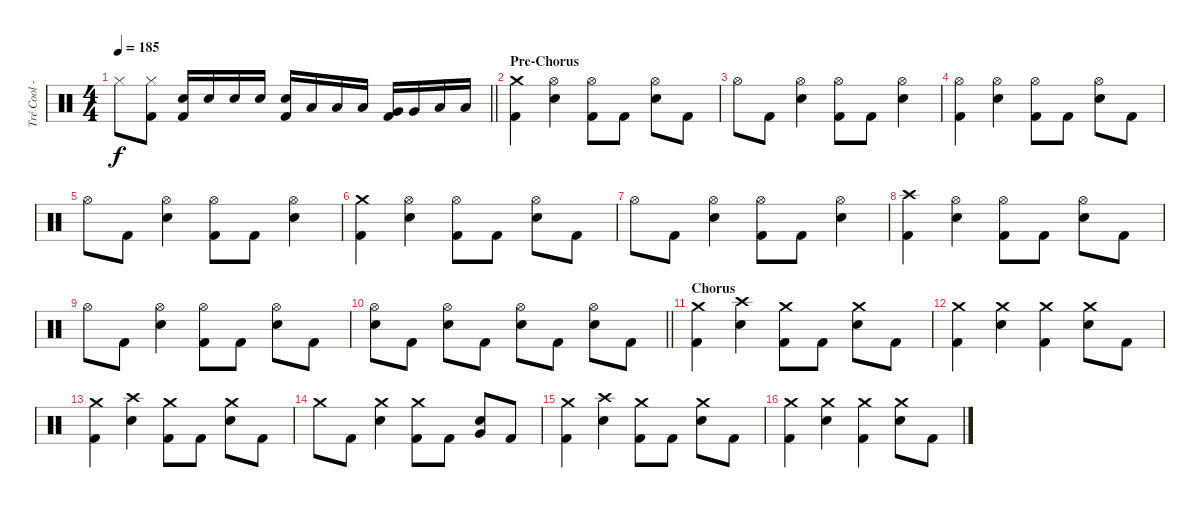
\track ("Tré Cool - Drums" "Tré Cool -") {instrument percussion}
\staff {score}
\articulation defaults
\ts (4 4)
\tempo 185
\clef neutral
\barLineRight lightlight
\ks c "Hi-Hat (closed)".8{dy f}
("Hi-Hat (closed)" "Kick (hit) 2").8 ("Electric Snare (hit)" "Kick (hit) 2").16 "Electric Snare (hit)".16 "Electric Snare (hit)".16 "Electric Snare (hit)".16 ("Electric Snare (hit)" "Kick (hit) 2").16 "Low Tom (hit)".16 "Low Tom (hit)".16 "Low Tom (hit)".16 ("Very Low Tom (hit)" "Kick (hit) 2").16 "Very Low Tom (hit)".16 "Low Floor Tom (hit)".16 "Low Floor Tom (hit)".16 |
\section ("" "Pre-Chorus")
("Crash medium (hit)" "Kick (hit) 2").4 ("Hi-Hat (open)" "Electric Snare (hit)").4 ("Hi-Hat (open)" "Kick (hit) 2").8 "Kick (hit) 2".8 ("Hi-Hat (open)" "Electric Snare (hit)").8 "Kick (hit) 2".8 |
"Hi-Hat (open)".8 "Kick (hit) 2".8 ("Hi-Hat (open)" "Electric Snare (hit)").4 ("Hi-Hat (open)" "Kick (hit) 2").8 "Kick (hit) 2".8 ("Hi-Hat (open)" "Electric Snare (hit)").4 |
("Hi-Hat (open)" "Kick (hit) 2").4 ("Hi-Hat (open)" "Electric Snare (hit)").4 ("Hi-Hat (open)" "Kick (hit) 2").8 "Kick (hit) 2".8 ("Hi-Hat (open)" "Electric Snare (hit)").8 "Kick (hit) 2".8 |
"Hi-Hat (open)".8 "Kick (hit) 2".8 ("Hi-Hat (open)" "Electric Snare (hit)").4 ("Hi-Hat (open)" "Kick (hit) 2").8 "Kick (hit) 2".8 ("Hi-Hat (open)" "Electric Snare (hit)").4 |
("Crash medium (hit)" "Kick (hit) 2").4 ("Hi-Hat (open)" "Electric Snare (hit)").4 ("Hi-Hat (open)" "Kick (hit) 2").8 "Kick (hit) 2".8 ("Hi-Hat (open)" "Electric Snare (hit)").8 "Kick (hit) 2".8 |
"Hi-Hat (open)".8 "Kick (hit) 2".8 ("Hi-Hat (open)" "Electric Snare (hit)").4 ("Hi-Hat (open)" "Kick (hit) 2").8 "Kick (hit) 2".8 ("Hi-Hat (open)" "Electric Snare (hit)").4 |
("Crash high (hit)" "Kick (hit) 2").4 ("Hi-Hat (open)" "Electric Snare (hit)").4 ("Hi-Hat (open)" "Kick (hit) 2").8 "Kick (hit) 2".8 ("Hi-Hat (open)" "Electric Snare (hit)").8 "Kick (hit) 2".8 |
"Hi-Hat (open)".8 "Kick (hit) 2".8 ("Hi-Hat (open)" "Electric Snare (hit)").4 ("Hi-Hat (open)" "Kick (hit) 2").8 "Kick (hit) 2".8 ("Hi-Hat (open)" "Electric Snare (hit)").8 "Kick (hit) 2".8 |
\barLineRight lightlight
("Hi-Hat (open)" "Electric Snare (hit)").8 "Kick (hit) 2".8 ("Hi-Hat (open)" "Electric Snare (hit)").8 "Kick (hit) 2".8 ("Hi-Hat (open)" "Electric Snare (hit)").8 "Kick (hit) 2".8 ("Hi-Hat (open)" "Electric Snare (hit)").8 "Kick (hit) 2".8 |
\section ("" "Chorus")
("Crash medium (hit)" "Kick (hit) 2").4 ("Crash high (hit)" "Electric Snare (hit)").4 ("Crash medium (hit)" "Kick (hit) 2").8 "Kick (hit) 2".8 ("Crash medium (hit)" "Electric Snare (hit)").8 "Kick (hit) 2".8 |
("Crash medium (hit)" "Kick (hit) 2").4 ("Crash medium (hit)" "Electric Snare (hit)").4 ("Crash medium (hit)" "Kick (hit) 2").4 ("Crash medium (hit)" "Electric Snare (hit)").8 "Kick (hit) 2".8 |
("Crash medium (hit)" "Kick (hit) 2").4 ("Crash high (hit)" "Electric Snare (hit)").4 ("Crash medium (hit)" "Kick (hit) 2").8 "Kick (hit) 2".8 ("Crash medium (hit)" "Electric Snare (hit)").8 "Kick (hit) 2".8 |
"Crash medium (hit)".8 "Kick (hit) 2".8 ("Crash medium (hit)" "Electric Snare (hit)").4 ("Crash medium (hit)" "Kick (hit) 2").8 "Kick (hit) 2".8 ("Very Low Tom (hit)" "Electric Snare (hit)").8 "Kick (hit) 2".8 |
("Crash medium (hit)" "Kick (hit) 2").4 ("Crash high (hit)" "Electric Snare (hit)").4 ("Crash medium (hit)" "Kick (hit) 2").8 "Kick (hit) 2".8 ("Crash medium (hit)" "Electric Snare (hit)").8 "Kick (hit) 2".8 |
("Crash medium (hit)" "Kick (hit) 2").4 ("Crash medium (hit)" "Electric Snare (hit)").4 ("Crash medium (hit)" "Kick (hit) 2").4 ("Crash medium (hit)" "Electric Snare (hit)").8 "Kick (hit) 2".8
